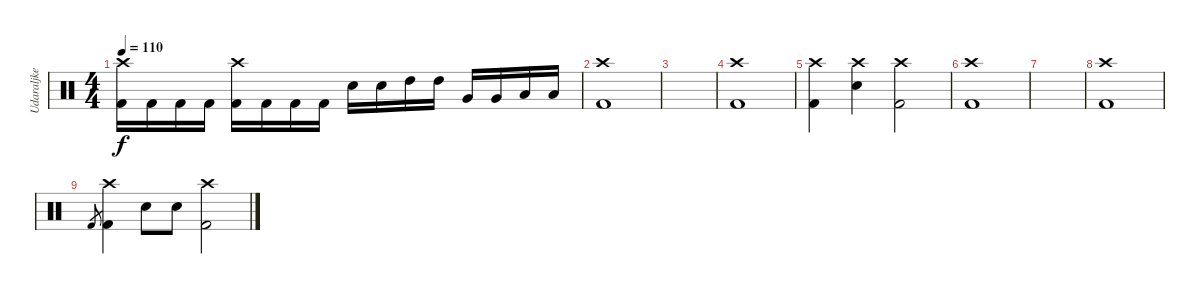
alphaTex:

\track ("Udaraljke" "Udaraljke") {instrument percussion}
\staff {score}
\articulation defaults
\ts (4 4)
\tempo 110
\clef neutral
\ks c
("Crash high (hit)" "Kick (hit) 2").16{dy f} "Kick (hit) 2".16 "Kick (hit) 2".16 "Kick (hit) 2".16 ("Crash high (hit)" "Kick (hit) 2").16 "Kick (hit) 2".16 "Kick (hit) 2".16 "Kick (hit) 2".16 "Electric Snare (hit)".16 "Electric Snare (hit)".16 "High Tom (hit)".16 "High Tom (hit)".16 "Very Low Tom (hit)".16 "Very Low Tom (hit)".16 "Low Tom (hit)".16 "Low Tom (hit)".16 |
("Crash high (hit)" "Kick (hit) 2").1 |
|
("Crash high (hit)" "Kick (hit) 2").1 |
("Crash high (hit)" "Kick (hit) 2").4 ("Crash high (hit)" "Electric Snare (hit)").4 ("Crash high (hit)" "Kick (hit) 2").2 |
("Crash high (hit)" "Kick (hit) 2").1 |
|
("Crash high (hit)" "Kick (hit) 2").1 |
"Kick (hit) 2".8{gr} ("Crash high (hit)" "Kick (hit) 2").4 "Electric Snare (hit)".8 "Electric Snare (hit)".8 ("Crash high (hit)" "Kick (hit) 2").2
